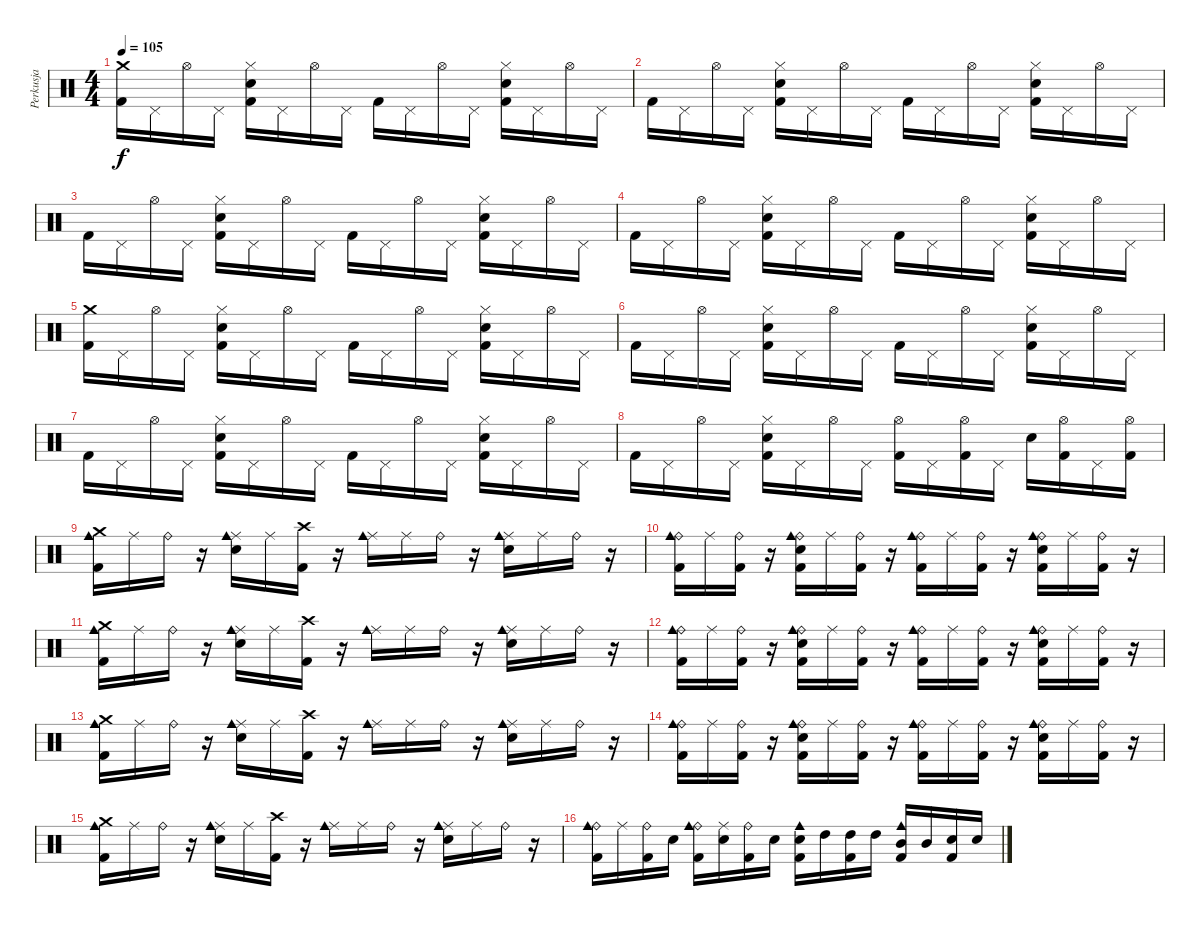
\track ("Perkusja" "Perkusja") {instrument percussion}
\staff {score}
\articulation defaults
\ts (4 4)
\tempo 105
\clef neutral
\ks c
("Crash medium (hit)" "Kick (hit) 2").16{dy f} "Pedal Hi-Hat (hit)".16 "Hi-Hat (open)".16 "Pedal Hi-Hat (hit)".16 ("Hi-Hat (closed)" "Electric Snare (hit)" "Kick (hit) 2").16 "Pedal Hi-Hat (hit)".16 "Hi-Hat (open)".16 "Pedal Hi-Hat (hit)".16 "Kick (hit) 2".16 "Pedal Hi-Hat (hit)".16 "Hi-Hat (open)".16 "Pedal Hi-Hat (hit)".16 ("Hi-Hat (closed)" "Electric Snare (hit)" "Kick (hit) 2").16 "Pedal Hi-Hat (hit)".16 "Hi-Hat (open)".16 "Pedal Hi-Hat (hit)".16 |
"Kick (hit) 2".16 "Pedal Hi-Hat (hit)".16 "Hi-Hat (open)".16 "Pedal Hi-Hat (hit)".16 ("Hi-Hat (closed)" "Electric Snare (hit)" "Kick (hit) 2").16 "Pedal Hi-Hat (hit)".16 "Hi-Hat (open)".16 "Pedal Hi-Hat (hit)".16 "Kick (hit) 2".16 "Pedal Hi-Hat (hit)".16 "Hi-Hat (open)".16 "Pedal Hi-Hat (hit)".16 ("Hi-Hat (closed)" "Electric Snare (hit)" "Kick (hit) 2").16 "Pedal Hi-Hat (hit)".16 "Hi-Hat (open)".16 "Pedal Hi-Hat (hit)".16 |
"Kick (hit) 2".16 "Pedal Hi-Hat (hit)".16 "Hi-Hat (open)".16 "Pedal Hi-Hat (hit)".16 ("Hi-Hat (closed)" "Electric Snare (hit)" "Kick (hit) 2").16 "Pedal Hi-Hat (hit)".16 "Hi-Hat (open)".16 "Pedal Hi-Hat (hit)".16 "Kick (hit) 2".16 "Pedal Hi-Hat (hit)".16 "Hi-Hat (open)".16 "Pedal Hi-Hat (hit)".16 ("Hi-Hat (closed)" "Electric Snare (hit)" "Kick (hit) 2").16 "Pedal Hi-Hat (hit)".16 "Hi-Hat (open)".16 "Pedal Hi-Hat (hit)".16 |
"Kick (hit) 2".16 "Pedal Hi-Hat (hit)".16 "Hi-Hat (open)".16 "Pedal Hi-Hat (hit)".16 ("Hi-Hat (closed)" "Electric Snare (hit)" "Kick (hit) 2").16 "Pedal Hi-Hat (hit)".16 "Hi-Hat (open)".16 "Pedal Hi-Hat (hit)".16 "Kick (hit) 2".16 "Pedal Hi-Hat (hit)".16 "Hi-Hat (open)".16 "Pedal Hi-Hat (hit)".16 ("Hi-Hat (closed)" "Electric Snare (hit)" "Kick (hit) 2").16 "Pedal Hi-Hat (hit)".16 "Hi-Hat (open)".16 "Pedal Hi-Hat (hit)".16 |
("Crash medium (hit)" "Kick (hit) 2").16 "Pedal Hi-Hat (hit)".16 "Hi-Hat (open)".16 "Pedal Hi-Hat (hit)".16 ("Hi-Hat (closed)" "Electric Snare (hit)" "Kick (hit) 2").16 "Pedal Hi-Hat (hit)".16 "Hi-Hat (open)".16 "Pedal Hi-Hat (hit)".16 "Kick (hit) 2".16 "Pedal Hi-Hat (hit)".16 "Hi-Hat (open)".16 "Pedal Hi-Hat (hit)".16 ("Hi-Hat (closed)" "Electric Snare (hit)" "Kick (hit) 2").16 "Pedal Hi-Hat (hit)".16 "Hi-Hat (open)".16 "Pedal Hi-Hat (hit)".16 |
"Kick (hit) 2".16 "Pedal Hi-Hat (hit)".16 "Hi-Hat (open)".16 "Pedal Hi-Hat (hit)".16 ("Hi-Hat (closed)" "Electric Snare (hit)" "Kick (hit) 2").16 "Pedal Hi-Hat (hit)".16 "Hi-Hat (open)".16 "Pedal Hi-Hat (hit)".16 "Kick (hit) 2".16 "Pedal Hi-Hat (hit)".16 "Hi-Hat (open)".16 "Pedal Hi-Hat (hit)".16 ("Hi-Hat (closed)" "Electric Snare (hit)" "Kick (hit) 2").16 "Pedal Hi-Hat (hit)".16 "Hi-Hat (open)".16 "Pedal Hi-Hat (hit)".16 |
"Kick (hit) 2".16 "Pedal Hi-Hat (hit)".16 "Hi-Hat (open)".16 "Pedal Hi-Hat (hit)".16 ("Hi-Hat (closed)" "Electric Snare (hit)" "Kick (hit) 2").16 "Pedal Hi-Hat (hit)".16 "Hi-Hat (open)".16 "Pedal Hi-Hat (hit)".16 "Kick (hit) 2".16 "Pedal Hi-Hat (hit)".16 "Hi-Hat (open)".16 "Pedal Hi-Hat (hit)".16 ("Hi-Hat (closed)" "Electric Snare (hit)" "Kick (hit) 2").16 "Pedal Hi-Hat (hit)".16 "Hi-Hat (open)".16 "Pedal Hi-Hat (hit)".16 |
"Kick (hit) 2".16 "Pedal Hi-Hat (hit)".16 "Hi-Hat (open)".16 "Pedal Hi-Hat (hit)".16 ("Hi-Hat (closed)" "Electric Snare (hit)" "Kick (hit) 2").16 "Pedal Hi-Hat (hit)".16 "Hi-Hat (open)".16 "Pedal Hi-Hat (hit)".16 ("Hi-Hat (open)" "Kick (hit) 2").16 "Pedal Hi-Hat (hit)".16 ("Hi-Hat (open)" "Kick (hit) 2").16 "Pedal Hi-Hat (hit)".16 "Electric Snare (hit)".16 ("Hi-Hat (open)" "Kick (hit) 2").16 "Pedal Hi-Hat (hit)".16 ("Hi-Hat (open)" "Kick (hit) 2").16 |
("Crash medium (hit)" "Kick (hit) 2" "Cowbell medium (hit)").16 "Ride (middle)".16 "Ride (bell)".16 r.16 ("Ride (middle)" "Electric Snare (hit)" "Cowbell medium (hit)").16 "Ride (middle)".16 ("Crash high (hit)" "Kick (hit) 2").16 r.16 ("Ride (middle)" "Cowbell medium (hit)").16 "Ride (middle)".16 "Ride (bell)".16 r.16 ("Ride (middle)" "Electric Snare (hit)" "Cowbell medium (hit)").16 "Ride (middle)".16 "Ride (bell)".16 r.16 |
("Ride (bell)" "Kick (hit) 2" "Cowbell medium (hit)").16 "Ride (middle)".16 ("Ride (bell)" "Kick (hit) 2").16 r.16 ("Ride (bell)" "Electric Snare (hit)" "Kick (hit) 2" "Cowbell medium (hit)").16 "Ride (middle)".16 ("Ride (bell)" "Kick (hit) 2").16 r.16 ("Ride (bell)" "Kick (hit) 2" "Cowbell medium (hit)").16 "Ride (middle)".16 ("Ride (bell)" "Kick (hit) 2").16 r.16 ("Ride (bell)" "Electric Snare (hit)" "Kick (hit) 2" "Cowbell medium (hit)").16 "Ride (middle)".16 ("Ride (bell)" "Kick (hit) 2").16 r.16 |
("Crash medium (hit)" "Kick (hit) 2" "Cowbell medium (hit)").16 "Ride (middle)".16 "Ride (bell)".16 r.16 ("Ride (middle)" "Electric Snare (hit)" "Cowbell medium (hit)").16 "Ride (middle)".16 ("Crash high (hit)" "Kick (hit) 2").16 r.16 ("Ride (middle)" "Cowbell medium (hit)").16 "Ride (middle)".16 "Ride (bell)".16 r.16 ("Ride (middle)" "Electric Snare (hit)" "Cowbell medium (hit)").16 "Ride (middle)".16 "Ride (bell)".16 r.16 |
("Ride (bell)" "Kick (hit) 2" "Cowbell medium (hit)").16 "Ride (middle)".16 ("Ride (bell)" "Kick (hit) 2").16 r.16 ("Ride (bell)" "Electric Snare (hit)" "Kick (hit) 2" "Cowbell medium (hit)").16 "Ride (middle)".16 ("Ride (bell)" "Kick (hit) 2").16 r.16 ("Ride (bell)" "Kick (hit) 2" "Cowbell medium (hit)").16 "Ride (middle)".16 ("Ride (bell)" "Kick (hit) 2").16 r.16 ("Ride (bell)" "Electric Snare (hit)" "Kick (hit) 2" "Cowbell medium (hit)").16 "Ride (middle)".16 ("Ride (bell)" "Kick (hit) 2").16 r.16 |
("Crash medium (hit)" "Kick (hit) 2" "Cowbell medium (hit)").16 "Ride (middle)".16 "Ride (bell)".16 r.16 ("Ride (middle)" "Electric Snare (hit)" "Cowbell medium (hit)").16 "Ride (middle)".16 ("Crash high (hit)" "Kick (hit) 2").16 r.16 ("Ride (middle)" "Cowbell medium (hit)").16 "Ride (middle)".16 "Ride (bell)".16 r.16 ("Ride (middle)" "Electric Snare (hit)" "Cowbell medium (hit)").16 "Ride (middle)".16 "Ride (bell)".16 r.16 |
("Ride (bell)" "Kick (hit) 2" "Cowbell medium (hit)").16 "Ride (middle)".16 ("Ride (bell)" "Kick (hit) 2").16 r.16 ("Ride (bell)" "Electric Snare (hit)" "Kick (hit) 2" "Cowbell medium (hit)").16 "Ride (middle)".16 ("Ride (bell)" "Kick (hit) 2").16 r.16 ("Ride (bell)" "Kick (hit) 2" "Cowbell medium (hit)").16 "Ride (middle)".16 ("Ride (bell)" "Kick (hit) 2").16 r.16 ("Ride (bell)" "Electric Snare (hit)" "Kick (hit) 2" "Cowbell medium (hit)").16 "Ride (middle)".16 ("Ride (bell)" "Kick (hit) 2").16 r.16 |
("Crash medium (hit)" "Kick (hit) 2" "Cowbell medium (hit)").16 "Ride (middle)".16 "Ride (bell)".16 r.16 ("Ride (middle)" "Electric Snare (hit)" "Cowbell medium (hit)").16 "Ride (middle)".16 ("Crash high (hit)" "Kick (hit) 2").16 r.16 ("Ride (middle)" "Cowbell medium (hit)").16 "Ride (middle)".16 "Ride (bell)".16 r.16 ("Ride (middle)" "Electric Snare (hit)" "Cowbell medium (hit)").16 "Ride (middle)".16 "Ride (bell)".16 r.16 |
("Ride (bell)" "Kick (hit) 2" "Cowbell medium (hit)").16 "Ride (middle)".16 ("Ride (bell)" "Kick (hit) 2").16 "Electric Snare (hit)".16 ("Ride (bell)" "Kick (hit) 2" "Cowbell medium (hit)").16 ("Ride (middle)" "Electric Snare (hit)").16 ("Ride (bell)" "Kick (hit) 2").16 "Electric Snare (hit)".16 ("Electric Snare (hit)" "Kick (hit) 2" "Cowbell medium (hit)").16 "High Tom (hit)".16 ("High Tom (hit)" "Kick (hit) 2").16 "High Tom (hit)".16 ("Mid Tom (hit)" "Kick (hit) 2" "Cowbell medium (hit)").16 "Mid Tom (hit)".16 ("Electric Snare (hit)" "Kick (hit) 2").16 "Electric Snare (hit)".16
